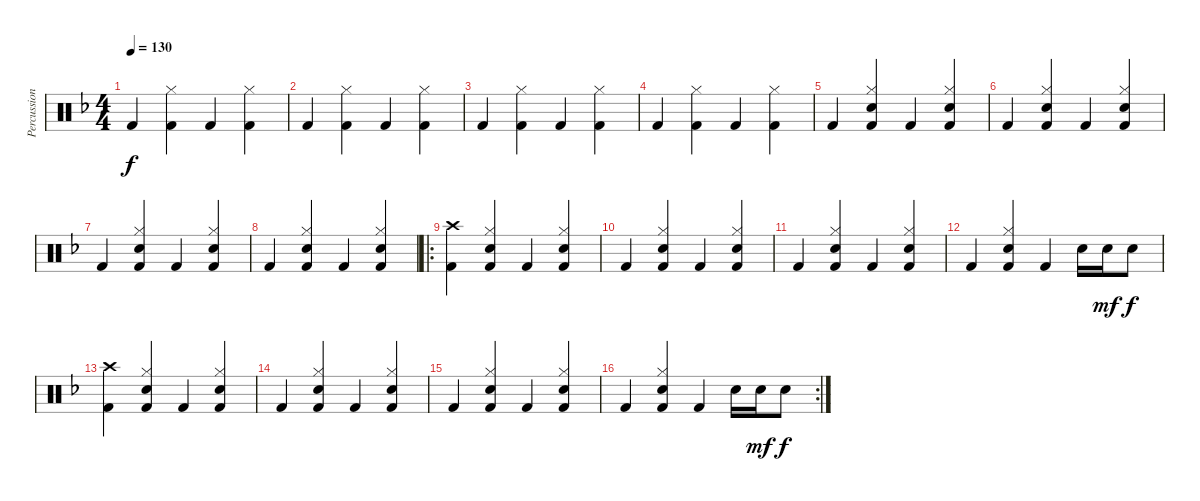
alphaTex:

\track ("Percussion" "Percussion") {instrument percussion}
\staff {score}
\articulation defaults
\ts (4 4)
\tempo 130
\clef neutral
\ks f "Kick (hit) 2".4{dy f}
("Hi-Hat (closed)" "Kick (hit) 2").4 "Kick (hit) 2".4 ("Hi-Hat (closed)" "Kick (hit) 2").4 |
"Kick (hit) 2".4 ("Hi-Hat (closed)" "Kick (hit) 2").4 "Kick (hit) 2".4 ("Hi-Hat (closed)" "Kick (hit) 2").4 |
"Kick (hit) 2".4 ("Hi-Hat (closed)" "Kick (hit) 2").4 "Kick (hit) 2".4 ("Hi-Hat (closed)" "Kick (hit) 2").4 |
"Kick (hit) 2".4 ("Hi-Hat (closed)" "Kick (hit) 2").4 "Kick (hit) 2".4 ("Hi-Hat (closed)" "Kick (hit) 2").4 |
"Kick (hit) 2".4 ("Hi-Hat (closed)" "Snare (hit) 2" "Kick (hit) 2").4 "Kick (hit) 2".4 ("Hi-Hat (closed)" "Snare (hit) 2" "Kick (hit) 2").4 |
"Kick (hit) 2".4 ("Hi-Hat (closed)" "Snare (hit) 2" "Kick (hit) 2").4 "Kick (hit) 2".4 ("Hi-Hat (closed)" "Snare (hit) 2" "Kick (hit) 2").4 |
"Kick (hit) 2".4 ("Hi-Hat (closed)" "Snare (hit) 2" "Kick (hit) 2").4 "Kick (hit) 2".4 ("Hi-Hat (closed)" "Snare (hit) 2" "Kick (hit) 2").4 |
"Kick (hit) 2".4 ("Hi-Hat (closed)" "Snare (hit) 2" "Kick (hit) 2").4 "Kick (hit) 2".4 ("Hi-Hat (closed)" "Snare (hit) 2" "Kick (hit) 2").4 |
\ro
("Crash high (hit)" "Kick (hit) 2").4 ("Hi-Hat (closed)" "Snare (hit) 2" "Kick (hit) 2").4 "Kick (hit) 2".4 ("Hi-Hat (closed)" "Snare (hit) 2" "Kick (hit) 2").4 |
"Kick (hit) 2".4 ("Hi-Hat (closed)" "Snare (hit) 2" "Kick (hit) 2").4 "Kick (hit) 2".4 ("Hi-Hat (closed)" "Snare (hit) 2" "Kick (hit) 2").4 |
"Kick (hit) 2".4 ("Hi-Hat (closed)" "Snare (hit) 2" "Kick (hit) 2").4 "Kick (hit) 2".4 ("Hi-Hat (closed)" "Snare (hit) 2" "Kick (hit) 2").4 |
"Kick (hit) 2".4 ("Hi-Hat (closed)" "Snare (hit) 2" "Kick (hit) 2").4 "Kick (hit) 2".4 "Snare (hit) 2".16 "Snare (hit) 2".16{dy mf} "Snare (hit) 2".8{dy f} |
("Crash high (hit)" "Kick (hit) 2").4 ("Hi-Hat (closed)" "Snare (hit) 2" "Kick (hit) 2").4 "Kick (hit) 2".4 ("Hi-Hat (closed)" "Snare (hit) 2" "Kick (hit) 2").4 |
"Kick (hit) 2".4 ("Hi-Hat (closed)" "Snare (hit) 2" "Kick (hit) 2").4 "Kick (hit) 2".4 ("Hi-Hat (closed)" "Snare (hit) 2" "Kick (hit) 2").4 |
"Kick (hit) 2".4 ("Hi-Hat (closed)" "Snare (hit) 2" "Kick (hit) 2").4 "Kick (hit) 2".4 ("Hi-Hat (closed)" "Snare (hit) 2" "Kick (hit) 2").4 |
\rc 2 "Kick (hit) 2".4
("Hi-Hat (closed)" "Snare (hit) 2" "Kick (hit) 2").4 "Kick (hit) 2".4 "Snare (hit) 2".16 "Snare (hit) 2".16{dy mf} "Snare (hit) 2".8{dy f}
